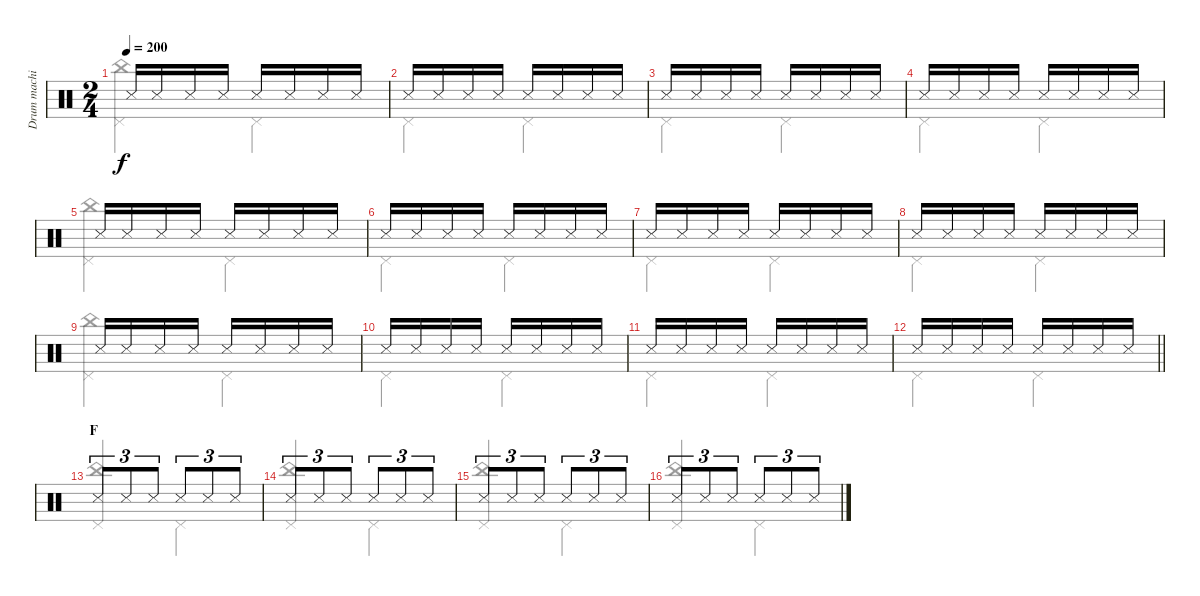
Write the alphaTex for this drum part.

\track ("Drum machine" "Drum machi") {instrument percussion}
\staff {score}
\articulation defaults
\voice
\ts (2 4)
\tempo 200
\clef neutral
\ks c "Snare (side stick) 3".16{dy f beam Up} "Snare (side stick) 3".16{beam Up} "Snare (side stick) 3".16{beam Up} "Snare (side stick) 3".16{beam Up} "Snare (side stick) 3".16{beam Up} "Snare (side stick) 3".16{beam Up} "Snare (side stick) 3".16{beam Up} "Snare (side stick) 3".16{beam Up}
|
"Snare (side stick) 3".16{beam Up} "Snare (side stick) 3".16{beam Up} "Snare (side stick) 3".16{beam Up} "Snare (side stick) 3".16{beam Up} "Snare (side stick) 3".16{beam Up} "Snare (side stick) 3".16{beam Up} "Snare (side stick) 3".16{beam Up} "Snare (side stick) 3".16{beam Up} |
"Snare (side stick) 3".16{beam Up} "Snare (side stick) 3".16{beam Up} "Snare (side stick) 3".16{beam Up} "Snare (side stick) 3".16{beam Up} "Snare (side stick) 3".16{beam Up} "Snare (side stick) 3".16{beam Up} "Snare (side stick) 3".16{beam Up} "Snare (side stick) 3".16{beam Up} |
"Snare (side stick) 3".16{beam Up} "Snare (side stick) 3".16{beam Up} "Snare (side stick) 3".16{beam Up} "Snare (side stick) 3".16{beam Up} "Snare (side stick) 3".16{beam Up} "Snare (side stick) 3".16{beam Up} "Snare (side stick) 3".16{beam Up} "Snare (side stick) 3".16{beam Up} |
"Snare (side stick) 3".16{beam Up} "Snare (side stick) 3".16{beam Up} "Snare (side stick) 3".16{beam Up} "Snare (side stick) 3".16{beam Up} "Snare (side stick) 3".16{beam Up} "Snare (side stick) 3".16{beam Up} "Snare (side stick) 3".16{beam Up} "Snare (side stick) 3".16{beam Up} |
"Snare (side stick) 3".16{beam Up} "Snare (side stick) 3".16{beam Up} "Snare (side stick) 3".16{beam Up} "Snare (side stick) 3".16{beam Up} "Snare (side stick) 3".16{beam Up} "Snare (side stick) 3".16{beam Up} "Snare (side stick) 3".16{beam Up} "Snare (side stick) 3".16{beam Up} |
"Snare (side stick) 3".16{beam Up} "Snare (side stick) 3".16{beam Up} "Snare (side stick) 3".16{beam Up} "Snare (side stick) 3".16{beam Up} "Snare (side stick) 3".16{beam Up} "Snare (side stick) 3".16{beam Up} "Snare (side stick) 3".16{beam Up} "Snare (side stick) 3".16{beam Up} |
"Snare (side stick) 3".16{beam Up} "Snare (side stick) 3".16{beam Up} "Snare (side stick) 3".16{beam Up} "Snare (side stick) 3".16{beam Up} "Snare (side stick) 3".16{beam Up} "Snare (side stick) 3".16{beam Up} "Snare (side stick) 3".16{beam Up} "Snare (side stick) 3".16{beam Up} |
"Snare (side stick) 3".16{beam Up} "Snare (side stick) 3".16{beam Up} "Snare (side stick) 3".16{beam Up} "Snare (side stick) 3".16{beam Up} "Snare (side stick) 3".16{beam Up} "Snare (side stick) 3".16{beam Up} "Snare (side stick) 3".16{beam Up} "Snare (side stick) 3".16{beam Up} |
"Snare (side stick) 3".16{beam Up} "Snare (side stick) 3".16{beam Up} "Snare (side stick) 3".16{beam Up} "Snare (side stick) 3".16{beam Up} "Snare (side stick) 3".16{beam Up} "Snare (side stick) 3".16{beam Up} "Snare (side stick) 3".16{beam Up} "Snare (side stick) 3".16{beam Up} |
"Snare (side stick) 3".16{beam Up} "Snare (side stick) 3".16{beam Up} "Snare (side stick) 3".16{beam Up} "Snare (side stick) 3".16{beam Up} "Snare (side stick) 3".16{beam Up} "Snare (side stick) 3".16{beam Up} "Snare (side stick) 3".16{beam Up} "Snare (side stick) 3".16{beam Up} |
\barLineRight lightlight "Snare (side stick) 3".16{beam Up} "Snare (side stick) 3".16{beam Up} "Snare (side stick) 3".16{beam Up} "Snare (side stick) 3".16{beam Up} "Snare (side stick) 3".16{beam Up} "Snare (side stick) 3".16{beam Up} "Snare (side stick) 3".16{beam Up} "Snare (side stick) 3".16{beam Up}
|
\section ("" "F")
"Snare (side stick) 3".8{tu (3 2)} "Snare (side stick) 3".8{tu (3 2)} "Snare (side stick) 3".8{tu (3 2)} "Snare (side stick) 3".8{tu (3 2)} "Snare (side stick) 3".8{tu (3 2)} "Snare (side stick) 3".8{tu (3 2)} |
"Snare (side stick) 3".8{tu (3 2)} "Snare (side stick) 3".8{tu (3 2)} "Snare (side stick) 3".8{tu (3 2)} "Snare (side stick) 3".8{tu (3 2)} "Snare (side stick) 3".8{tu (3 2)} "Snare (side stick) 3".8{tu (3 2)} |
"Snare (side stick) 3".8{tu (3 2)} "Snare (side stick) 3".8{tu (3 2)} "Snare (side stick) 3".8{tu (3 2)} "Snare (side stick) 3".8{tu (3 2)} "Snare (side stick) 3".8{tu (3 2)} "Snare (side stick) 3".8{tu (3 2)} |
"Snare (side stick) 3".8{tu (3 2)} "Snare (side stick) 3".8{tu (3 2)} "Snare (side stick) 3".8{tu (3 2)} "Snare (side stick) 3".8{tu (3 2)} "Snare (side stick) 3".8{tu (3 2)} "Snare (side stick) 3".8{tu (3 2)}
\voice
\clef neutral
\ottava regular
\simile none
\ks c
("China (hit)" "Pedal Hi-Hat (hit)").4{dy f} "Pedal Hi-Hat (hit)".4 |
"Pedal Hi-Hat (hit)".4 "Pedal Hi-Hat (hit)".4 |
"Pedal Hi-Hat (hit)".4 "Pedal Hi-Hat (hit)".4 |
"Pedal Hi-Hat (hit)".4 "Pedal Hi-Hat (hit)".4 |
("China (hit)" "Pedal Hi-Hat (hit)").4 "Pedal Hi-Hat (hit)".4 |
"Pedal Hi-Hat (hit)".4 "Pedal Hi-Hat (hit)".4 |
"Pedal Hi-Hat (hit)".4 "Pedal Hi-Hat (hit)".4 |
"Pedal Hi-Hat (hit)".4 "Pedal Hi-Hat (hit)".4 |
("China (hit)" "Pedal Hi-Hat (hit)").4 "Pedal Hi-Hat (hit)".4 |
"Pedal Hi-Hat (hit)".4 "Pedal Hi-Hat (hit)".4 |
"Pedal Hi-Hat (hit)".4 "Pedal Hi-Hat (hit)".4 |
\barLineRight lightlight "Pedal Hi-Hat (hit)".4 "Pedal Hi-Hat (hit)".4
|
("China (hit)" "Pedal Hi-Hat (hit)").4{beam Up} "Pedal Hi-Hat (hit)".4 |
("China (hit)" "Pedal Hi-Hat (hit)").4{beam Up} "Pedal Hi-Hat (hit)".4 |
("China (hit)" "Pedal Hi-Hat (hit)").4{beam Up} "Pedal Hi-Hat (hit)".4 |
("China (hit)" "Pedal Hi-Hat (hit)").4{beam Up} "Pedal Hi-Hat (hit)".4
